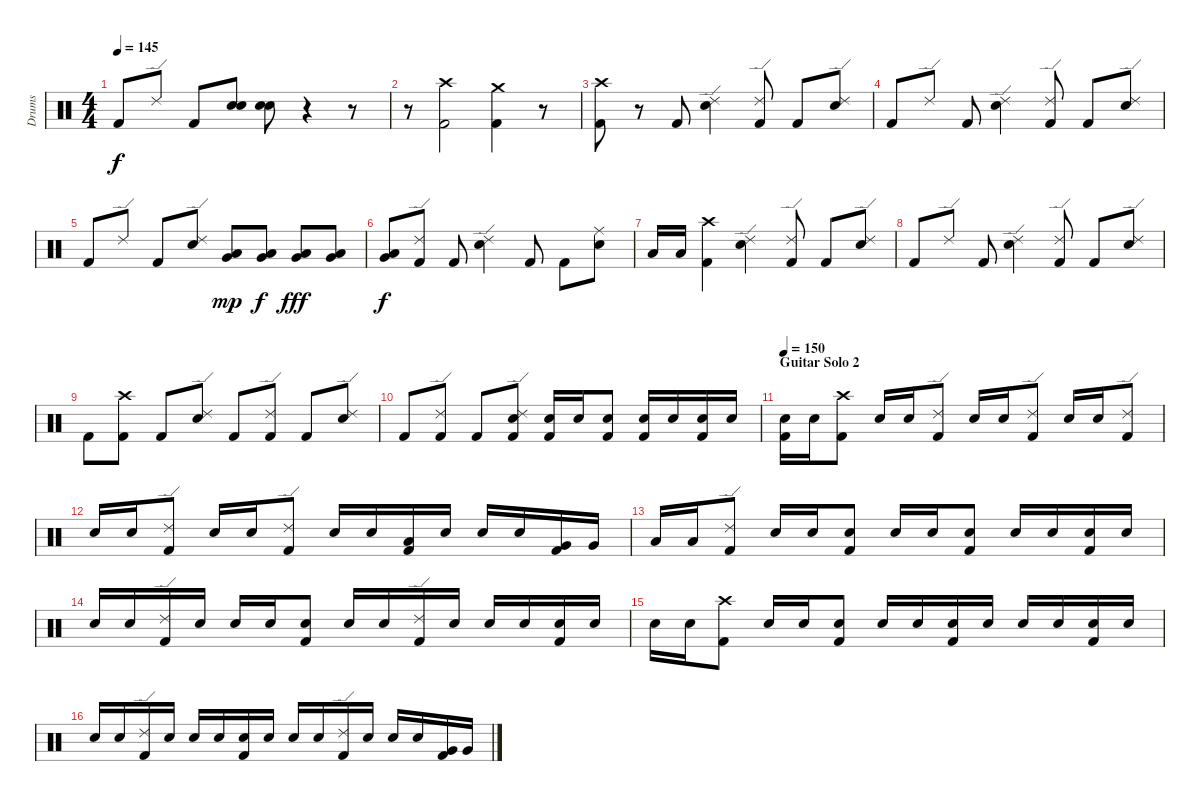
\track ("Drums" "Drums") {instrument percussion}
\staff {score}
\articulation defaults
\ts (4 4)
\tempo 145
\clef neutral
\ks c "Kick (hit) 2".8{dy f} "Ride (edge) 2".8 "Kick (hit) 2".8
("Snare (hit) 2" "Snare (hit) 2").8 ("Snare (hit) 2" "Snare (hit) 2").8 r.4 r.8 |
r.8 ("Crash high (hit)" "Kick (hit) 2").2 ("Crash medium (hit)" "Kick (hit) 2").4 r.8 |
("Crash high (hit)" "Kick (hit) 2").8 r.8 "Kick (hit) 2".8 ("Ride (edge) 2" "Snare (hit) 2").4 ("Ride (edge) 2" "Kick (hit) 2").8 "Kick (hit) 2".8 ("Ride (edge) 2" "Snare (hit) 2").8 |
"Kick (hit) 2".8 "Ride (edge) 2".8 "Kick (hit) 2".8 ("Ride (edge) 2" "Snare (hit) 2").4 ("Ride (edge) 2" "Kick (hit) 2").8 "Kick (hit) 2".8 ("Ride (edge) 2" "Snare (hit) 2").8 |
"Kick (hit) 2".8 "Ride (edge) 2".8 "Kick (hit) 2".8 ("Ride (edge) 2" "Snare (hit) 2").8 ("Low Floor Tom (hit)" "Very Low Tom (hit)").8{dy mp} ("Low Floor Tom (hit)" "Very Low Tom (hit)").8{dy f} ("Low Floor Tom (hit)" "Very Low Tom (hit)").8{dy fff} ("Low Floor Tom (hit)" "Very Low Tom (hit)").8 |
("Low Floor Tom (hit)" "Very Low Tom (hit)").8{dy f} ("Ride (edge) 2" "Kick (hit) 2").8 "Kick (hit) 2".8 ("Ride (edge) 2" "Snare (hit) 2").4 "Kick (hit) 2".8 "Kick (hit) 2".8 ("Ride (middle)" "Snare (hit) 2").8 |
"Low Floor Tom (hit)".16 "Low Floor Tom (hit)".16 ("Crash high (hit)" "Kick (hit) 2").4 ("Ride (edge) 2" "Snare (hit) 2").4 ("Ride (edge) 2" "Kick (hit) 2").8 "Kick (hit) 2".8 ("Ride (edge) 2" "Snare (hit) 2").8 |
"Kick (hit) 2".8 "Ride (edge) 2".8 "Kick (hit) 2".8 ("Ride (edge) 2" "Snare (hit) 2").4 ("Ride (edge) 2" "Kick (hit) 2").8 "Kick (hit) 2".8 ("Ride (edge) 2" "Snare (hit) 2").8 |
"Kick (hit) 2".8 ("Crash high (hit)" "Kick (hit) 2").8 "Kick (hit) 2".8 ("Ride (edge) 2" "Snare (hit) 2").8 "Kick (hit) 2".8 ("Ride (edge) 2" "Kick (hit) 2").8 "Kick (hit) 2".8 ("Ride (edge) 2" "Snare (hit) 2").8 |
"Kick (hit) 2".8 ("Ride (edge) 2" "Kick (hit) 2").8 "Kick (hit) 2".8 ("Ride (edge) 2" "Snare (hit) 2" "Kick (hit) 2").8 ("Snare (hit) 2" "Kick (hit) 2").16 "Snare (hit) 2".16 ("Snare (hit) 2" "Kick (hit) 2").8 ("Snare (hit) 2" "Kick (hit) 2").16 "Snare (hit) 2".16 ("Snare (hit) 2" "Kick (hit) 2").16 "Snare (hit) 2".16 |
\section ("" "Guitar Solo 2")
\tempo 150
("Snare (hit) 2" "Kick (hit) 2").16 "Snare (hit) 2".16 ("Crash high (hit)" "Kick (hit) 2").8 "Snare (hit) 2".16 "Snare (hit) 2".16 ("Ride (edge) 2" "Kick (hit) 2").8 "Snare (hit) 2".16 "Snare (hit) 2".16 ("Ride (edge) 2" "Kick (hit) 2").8 "Snare (hit) 2".16 "Snare (hit) 2".16 ("Ride (edge) 2" "Kick (hit) 2").8 |
"Snare (hit) 2".16 "Snare (hit) 2".16 ("Ride (edge) 2" "Kick (hit) 2").8 "Snare (hit) 2".16 "Snare (hit) 2".16 ("Ride (edge) 2" "Kick (hit) 2").8 "Snare (hit) 2".16 "Snare (hit) 2".16 ("Low Floor Tom (hit)" "Kick (hit) 2").16 "Snare (hit) 2".16 "Snare (hit) 2".16 "Snare (hit) 2".16 ("Very Low Tom (hit)" "Kick (hit) 2").16 "Very Low Tom (hit)".16 |
"Low Floor Tom (hit)".16 "Low Floor Tom (hit)".16 ("Ride (edge) 2" "Kick (hit) 2").8 "Snare (hit) 2".16 "Snare (hit) 2".16 ("Snare (hit) 2" "Kick (hit) 2").8 "Snare (hit) 2".16 "Snare (hit) 2".16 ("Snare (hit) 2" "Kick (hit) 2").8 "Snare (hit) 2".16 "Snare (hit) 2".16 ("Snare (hit) 2" "Kick (hit) 2").16 "Snare (hit) 2".16 |
"Snare (hit) 2".16 "Snare (hit) 2".16 ("Ride (edge) 2" "Kick (hit) 2").16 "Snare (hit) 2".16 "Snare (hit) 2".16 "Snare (hit) 2".16 ("Snare (hit) 2" "Kick (hit) 2").8 "Snare (hit) 2".16 "Snare (hit) 2".16 ("Ride (edge) 2" "Kick (hit) 2").16 "Snare (hit) 2".16 "Snare (hit) 2".16 "Snare (hit) 2".16 ("Snare (hit) 2" "Kick (hit) 2").16 "Snare (hit) 2".16 |
"Snare (hit) 2".16 "Snare (hit) 2".16 ("Crash high (hit)" "Kick (hit) 2").8 "Snare (hit) 2".16 "Snare (hit) 2".16 ("Snare (hit) 2" "Kick (hit) 2").8 "Snare (hit) 2".16 "Snare (hit) 2".16 ("Snare (hit) 2" "Kick (hit) 2").16 "Snare (hit) 2".16 "Snare (hit) 2".16 "Snare (hit) 2".16 ("Snare (hit) 2" "Kick (hit) 2").16 "Snare (hit) 2".16 |
"Snare (hit) 2".16 "Snare (hit) 2".16 ("Ride (edge) 2" "Kick (hit) 2").16 "Snare (hit) 2".16 "Snare (hit) 2".16 "Snare (hit) 2".16 ("Snare (hit) 2" "Kick (hit) 2").16 "Snare (hit) 2".16 "Snare (hit) 2".16 "Snare (hit) 2".16 ("Ride (edge) 2" "Kick (hit) 2").16 "Snare (hit) 2".16 "Snare (hit) 2".16 "Snare (hit) 2".16 ("Very Low Tom (hit)" "Kick (hit) 2").16 "Very Low Tom (hit)".16
